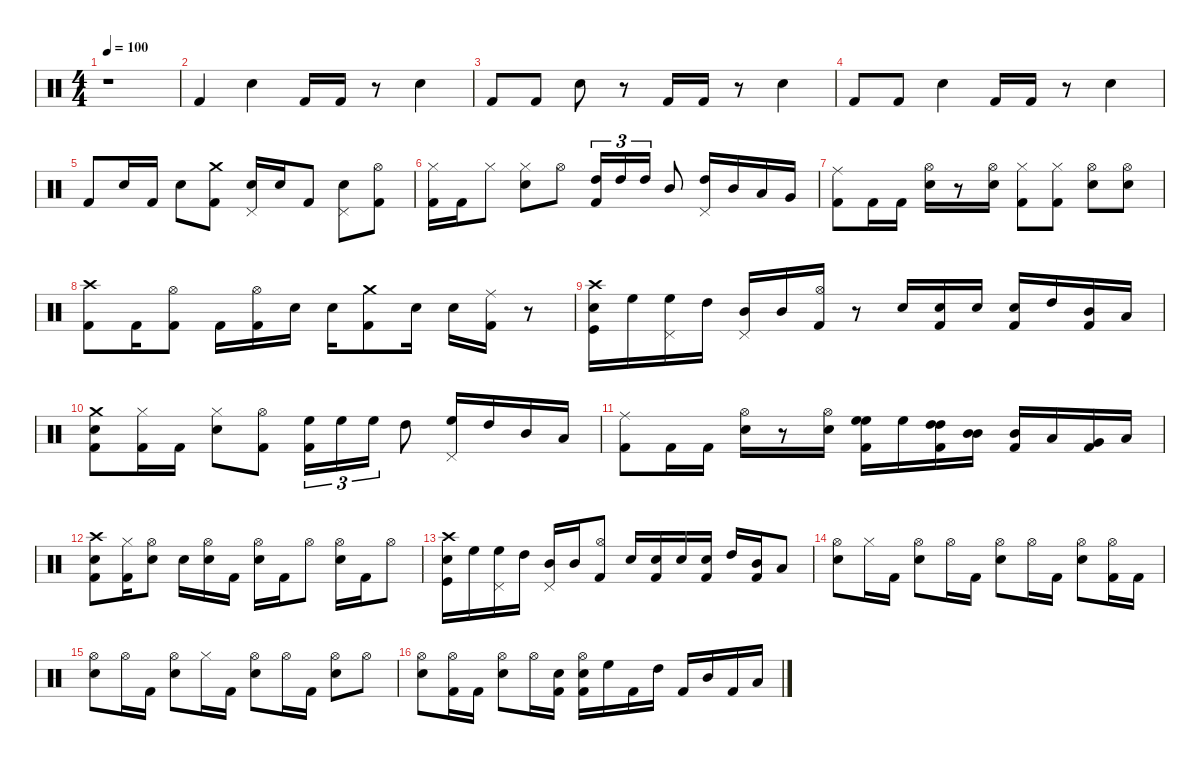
\defaultSystemsLayout 4
\hideDynamics
\bracketExtendMode nobrackets
\singleTrackTrackNamePolicy hidden
\multiTrackTrackNamePolicy hidden
\firstSystemTrackNameMode fullname
\firstSystemTrackNameOrientation horizontal
\otherSystemsTrackNameOrientation horizontal
\track ("Drums" "drm.") {instrument percussion}
\staff {score}
\articulation defaults
\ts (4 4)
\tempo 100
\clef neutral
\ks c
r.1{dy f beam Down} |
"Kick (hit) 2".4{beam Up} "Snare (hit) 2".4{beam Down} "Kick (hit) 2".16{beam Up} "Kick (hit) 2".16{beam Up} r.8{beam Up} "Snare (hit) 2".4{beam Down} |
"Kick (hit) 2".8{beam Up} "Kick (hit) 2".8{beam Up} "Snare (hit) 2".8{beam Down} r.8{beam Down} "Kick (hit) 2".16{beam Up} "Kick (hit) 2".16{beam Up} r.8{beam Up} "Snare (hit) 2".4{beam Down} |
"Kick (hit) 2".8{beam Up} "Kick (hit) 2".8{beam Up} "Snare (hit) 2".4{beam Down} "Kick (hit) 2".16{beam Up} "Kick (hit) 2".16{beam Up} r.8{beam Up} "Snare (hit) 2".4{beam Down} |
"Kick (hit) 2".8{beam Up} "Snare (hit) 2".16{beam Up} "Kick (hit) 2".16{beam Up} "Snare (hit) 2".8{beam Down} ("Crash medium (hit)" "Kick (hit) 2").8{beam Down} ("Pedal Hi-Hat (hit)" "Snare (hit) 2").16{dy mp beam Up} "Snare (hit) 2".16{dy f beam Up} "Kick (hit) 2".8{beam Up} ("Pedal Hi-Hat (hit)" "Snare (hit) 2").8{dy mp beam Down} ("Hi-Hat (open)" "Kick (hit) 2").8{dy mf beam Down} |
("Kick (hit) 2" "Hi-Hat (closed)").16{dy f beam Down} "Kick (hit) 2".16{beam Down} "Hi-Hat (closed)".8{beam Down} ("Snare (hit) 2" "Hi-Hat (closed)").8{beam Down} "Hi-Hat (open)".8{dy mf beam Down} ("Kick (hit) 2" "High Tom (hit)").16{tu (3 2) dy f beam Up} "High Tom (hit)".16{tu (3 2) dy mf beam Up} "High Tom (hit)".16{tu (3 2) dy mp beam Up} "Mid Tom (hit)".8{beam Up} ("Pedal Hi-Hat (hit)" "High Tom (hit)").16{beam Up} "Mid Tom (hit)".16{dy mf beam Up} "Low Tom (hit)".16{dy mp beam Up} "Very Low Tom (hit)".16{beam Up} |
("Kick (hit) 2" "Ride (middle)").8{dy f beam Down} "Kick (hit) 2".16{beam Down} "Kick (hit) 2".16{beam Down} ("Hi-Hat (open)" "Snare (hit) 2").16{beam Down} r.8{beam Down} ("Hi-Hat (open)" "Snare (hit) 2").16{dy mp beam Down} ("Hi-Hat (closed)" "Kick (hit) 2").8{dy f beam Down} ("Hi-Hat (closed)" "Kick (hit) 2").8{beam Down} ("Hi-Hat (open)" "Snare (hit) 2").8{dy mp beam Down} ("Hi-Hat (open)" "Snare (hit) 2").8{dy mf beam Down} |
("Crash high (hit)" "Kick (hit) 2").8{dy mp beam Down} "Kick (hit) 2".16{dy f beam Down} ("Kick (hit) 2" "Hi-Hat (open)").8{beam Down} "Kick (hit) 2".16{beam Down} ("Hi-Hat (open)" "Kick (hit) 2").16{dy mp beam Down} "Snare (hit) 2".16{dy f beam Down} "Snare (hit) 2".16{beam Down} ("Crash medium (hit)" "Kick (hit) 2").8{dy mp beam Down} "Snare (hit) 2".16{dy p beam Down} "Snare (hit) 2".16{dy f beam Down} ("Ride (middle)" "Kick (hit) 2").16{beam Down} r.8{beam Down} |
("Crash high (hit)" "Kick (hit)" "Snare (hit) 2").16{dy mp beam Down} "High Floor Tom (hit)".16{beam Down} ("Pedal Hi-Hat (hit)" "High Floor Tom (hit)").16{beam Down} "High Tom (hit)".16{beam Down} ("Pedal Hi-Hat (hit)" "Mid Tom (hit)").16{beam Up} "Mid Tom (hit)".16{beam Up} ("Hi-Hat (open)" "Kick (hit) 2").16{dy f beam Up} r.8{beam Up} "Snare (hit) 2".16{dy mp beam Up} ("Kick (hit) 2" "Snare (hit) 2").16{dy f beam Up} "Snare (hit) 2".16{dy mp beam Up} ("Kick (hit) 2" "Snare (hit) 2").16{dy f beam Up} "High Tom (hit)".16{dy mp beam Up} ("Kick (hit) 2" "Mid Tom (hit)").16{dy f beam Up} "Low Tom (hit)".16{dy mp beam Up} |
("Crash medium (hit)" "Kick (hit) 2" "Snare (hit) 2").8{beam Down} ("Hi-Hat (closed)" "Kick (hit) 2").16{dy f beam Down} "Kick (hit) 2".16{beam Down} ("Hi-Hat (closed)" "Snare (hit) 2").8{beam Down} ("Kick (hit) 2" "Hi-Hat (open)").8{beam Down} ("Kick (hit) 2" "High Floor Tom (hit)").16{tu (3 2) dy mp beam Down} "High Floor Tom (hit)".16{tu (3 2) beam Down} "High Floor Tom (hit)".16{tu (3 2) beam Down} "High Tom (hit)".8{beam Down} ("Pedal Hi-Hat (hit)" "High Floor Tom (hit)").16{beam Up} "High Tom (hit)".16{beam Up} "Mid Tom (hit)".16{beam Up} "Low Tom (hit)".16{beam Up} |
("Kick (hit) 2" "Ride (middle)").8{dy f beam Down} "Kick (hit) 2".16{beam Down} "Kick (hit) 2".16{beam Down} ("Hi-Hat (open)" "Snare (hit) 2").16{beam Down} r.8{beam Down} ("Hi-Hat (open)" "Snare (hit) 2").16{dy mp beam Down} ("High Floor Tom (hit)" "Kick (hit) 2" "High Floor Tom (hit)").16{dy p beam Down} "High Floor Tom (hit)".16{dy mp beam Down} ("High Tom (hit)" "Kick (hit) 2" "High Tom (hit)").16{dy p beam Down} ("Mid Tom (hit)" "Mid Tom (hit)").16{beam Down} ("Kick (hit) 2" "Mid Tom (hit)").16{dy mp beam Up} "Low Tom (hit)".16{beam Up} ("Kick (hit) 2" "Very Low Tom (hit)").16{beam Up} "Low Floor Tom (hit)".16{beam Up} |
("Crash high (hit)" "Kick (hit) 2" "Snare (hit) 2").8{beam Down} ("Kick (hit) 2" "Hi-Hat (closed)").16{dy f beam Down} ("Hi-Hat (open)" "Snare (hit) 2").8{beam Down} "Snare (hit) 2".16{dy mp beam Down} ("Hi-Hat (open)" "Snare (hit) 2").16{dy mf beam Down} "Kick (hit) 2".16{dy mp beam Down} ("Hi-Hat (open)" "Snare (hit) 2").16{beam Down} "Kick (hit) 2".16{beam Down} "Hi-Hat (open)".8{beam Down} ("Hi-Hat (open)" "Snare (hit) 2").16{beam Down} "Kick (hit) 2".16{beam Down} "Hi-Hat (open)".8{beam Down} |
("Crash high (hit)" "Kick (hit)" "Snare (hit) 2").16{beam Down} "High Floor Tom (hit)".16{beam Down} ("Pedal Hi-Hat (hit)" "High Floor Tom (hit)").16{beam Down} "High Tom (hit)".16{beam Down} ("Pedal Hi-Hat (hit)" "Mid Tom (hit)").16{beam Up} "Mid Tom (hit)".16{beam Up} ("Hi-Hat (open)" "Kick (hit) 2").8{dy f beam Up} "Snare (hit) 2".16{dy mp beam Up} ("Kick (hit) 2" "Snare (hit) 2").16{dy f beam Up} "Snare (hit) 2".16{dy mp beam Up} ("Kick (hit) 2" "Snare (hit) 2").16{dy f beam Up} "High Tom (hit)".16{dy mp beam Up} ("Kick (hit) 2" "Mid Tom (hit)").16{dy f beam Up} "Low Tom (hit)".8{dy mp beam Up} |
("Hi-Hat (open)" "Snare (hit) 2").8{beam Down} "Hi-Hat (closed)".16{beam Down} "Kick (hit) 2".16{dy f beam Down} ("Hi-Hat (open)" "Snare (hit) 2").8{dy mp beam Down} "Hi-Hat (open)".16{dy p beam Down} "Kick (hit) 2".16{dy f beam Down} ("Hi-Hat (open)" "Snare (hit) 2").8{dy mp beam Down} "Hi-Hat (open)".16{dy p beam Down} "Kick (hit) 2".16{dy f beam Down} ("Hi-Hat (open)" "Snare (hit) 2").8{beam Down} ("Hi-Hat (open)" "Kick (hit) 2").16{dy p beam Down} "Kick (hit) 2".16{dy f beam Down} |
("Hi-Hat (open)" "Snare (hit) 2").8{dy mp beam Down} "Hi-Hat (open)".16{dy p beam Down} "Kick (hit) 2".16{dy f beam Down} ("Hi-Hat (open)" "Snare (hit) 2").8{dy mp beam Down} "Hi-Hat (closed)".16{dy p beam Down} "Kick (hit) 2".16{dy f beam Down} ("Hi-Hat (open)" "Snare (hit) 2").8{dy mp beam Down} "Hi-Hat (open)".16{dy p beam Down} "Kick (hit) 2".16{dy f beam Down} ("Hi-Hat (open)" "Snare (hit) 2").8{dy mp beam Down} "Hi-Hat (open)".8{dy p beam Down} |
("Hi-Hat (open)" "Snare (hit) 2").8{dy mp beam Down} ("Hi-Hat (open)" "Kick (hit) 2").16{dy p beam Down} "Kick (hit) 2".16{dy f beam Down} ("Hi-Hat (open)" "Snare (hit) 2").8{dy mp beam Down} "Hi-Hat (open)".16{dy p beam Down} ("Snare (hit) 2" "Kick (hit) 2").16{beam Down} ("Kick (hit) 2" "Hi-Hat (open)" "Snare (hit) 2").16{dy f beam Down} "High Floor Tom (hit)".16{dy p beam Down} "Kick (hit) 2".16{dy f beam Down} "High Tom (hit)".16{dy p beam Down} "Kick (hit) 2".16{dy f beam Up} "Mid Tom (hit)".16{dy p beam Up} "Kick (hit) 2".16{dy f beam Up} "Low Tom (hit)".16{dy p beam Up}
